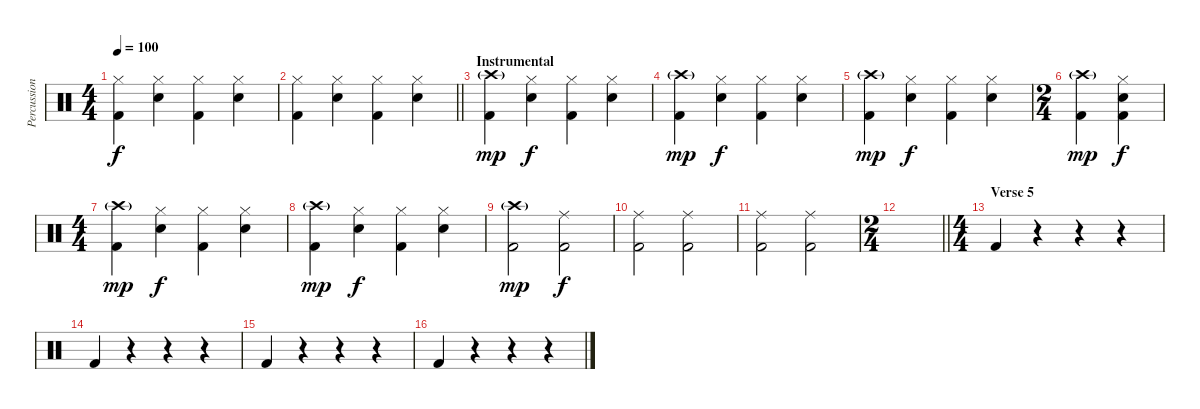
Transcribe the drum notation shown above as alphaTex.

\track ("Percussion" "Percussion") {instrument percussion}
\staff {score}
\articulation defaults
\ts (4 4)
\tempo 100
\clef neutral
\ks c
("Hi-Hat (closed)" "Kick (hit) 2").4{dy f} ("Hi-Hat (closed)" "Snare (hit) 2").4 ("Hi-Hat (closed)" "Kick (hit) 2").4 ("Hi-Hat (closed)" "Snare (hit) 2").4 |
\barLineRight lightlight
("Hi-Hat (closed)" "Kick (hit) 2").4 ("Hi-Hat (closed)" "Snare (hit) 2").4 ("Hi-Hat (closed)" "Kick (hit) 2").4 ("Hi-Hat (closed)" "Snare (hit) 2").4 |
\section ("" "Instrumental")
("Crash high (hit)"{g} "Kick (hit) 2").4{dy mp} ("Hi-Hat (closed)" "Snare (hit) 2").4{dy f} ("Hi-Hat (closed)" "Kick (hit) 2").4 ("Hi-Hat (closed)" "Snare (hit) 2").4 |
("Crash high (hit)"{g} "Kick (hit) 2").4{dy mp} ("Hi-Hat (closed)" "Snare (hit) 2").4{dy f} ("Hi-Hat (closed)" "Kick (hit) 2").4 ("Hi-Hat (closed)" "Snare (hit) 2").4 |
("Crash high (hit)"{g} "Kick (hit) 2").4{dy mp} ("Hi-Hat (closed)" "Snare (hit) 2").4{dy f} ("Hi-Hat (closed)" "Kick (hit) 2").4 ("Hi-Hat (closed)" "Snare (hit) 2").4 |
\ts (2 4)
("Crash high (hit)"{g} "Kick (hit) 2").4{dy mp} ("Hi-Hat (closed)" "Snare (hit) 2" "Kick (hit) 2").4{dy f} |
\ts (4 4)
("Crash high (hit)"{g} "Kick (hit) 2").4{dy mp} ("Hi-Hat (closed)" "Snare (hit) 2").4{dy f} ("Hi-Hat (closed)" "Kick (hit) 2").4 ("Hi-Hat (closed)" "Snare (hit) 2").4 |
("Crash high (hit)"{g} "Kick (hit) 2").4{dy mp} ("Hi-Hat (closed)" "Snare (hit) 2").4{dy f} ("Hi-Hat (closed)" "Kick (hit) 2").4 ("Hi-Hat (closed)" "Snare (hit) 2").4 |
("Crash high (hit)"{g} "Kick (hit) 2").2{dy mp} ("Ride (middle)" "Kick (hit) 2").2{dy f} |
("Ride (middle)" "Kick (hit) 2").2 ("Ride (middle)" "Kick (hit) 2").2 |
("Ride (middle)" "Kick (hit) 2").2 ("Ride (middle)" "Kick (hit) 2").2 |
\ts (2 4)
\barLineRight lightlight
|
\ts (4 4)
\section ("" "Verse 5")
"Kick (hit) 2".4 r.4 r.4 r.4 |
"Kick (hit) 2".4 r.4 r.4 r.4 |
"Kick (hit) 2".4 r.4 r.4 r.4 |
"Kick (hit) 2".4 r.4 r.4 r.4
